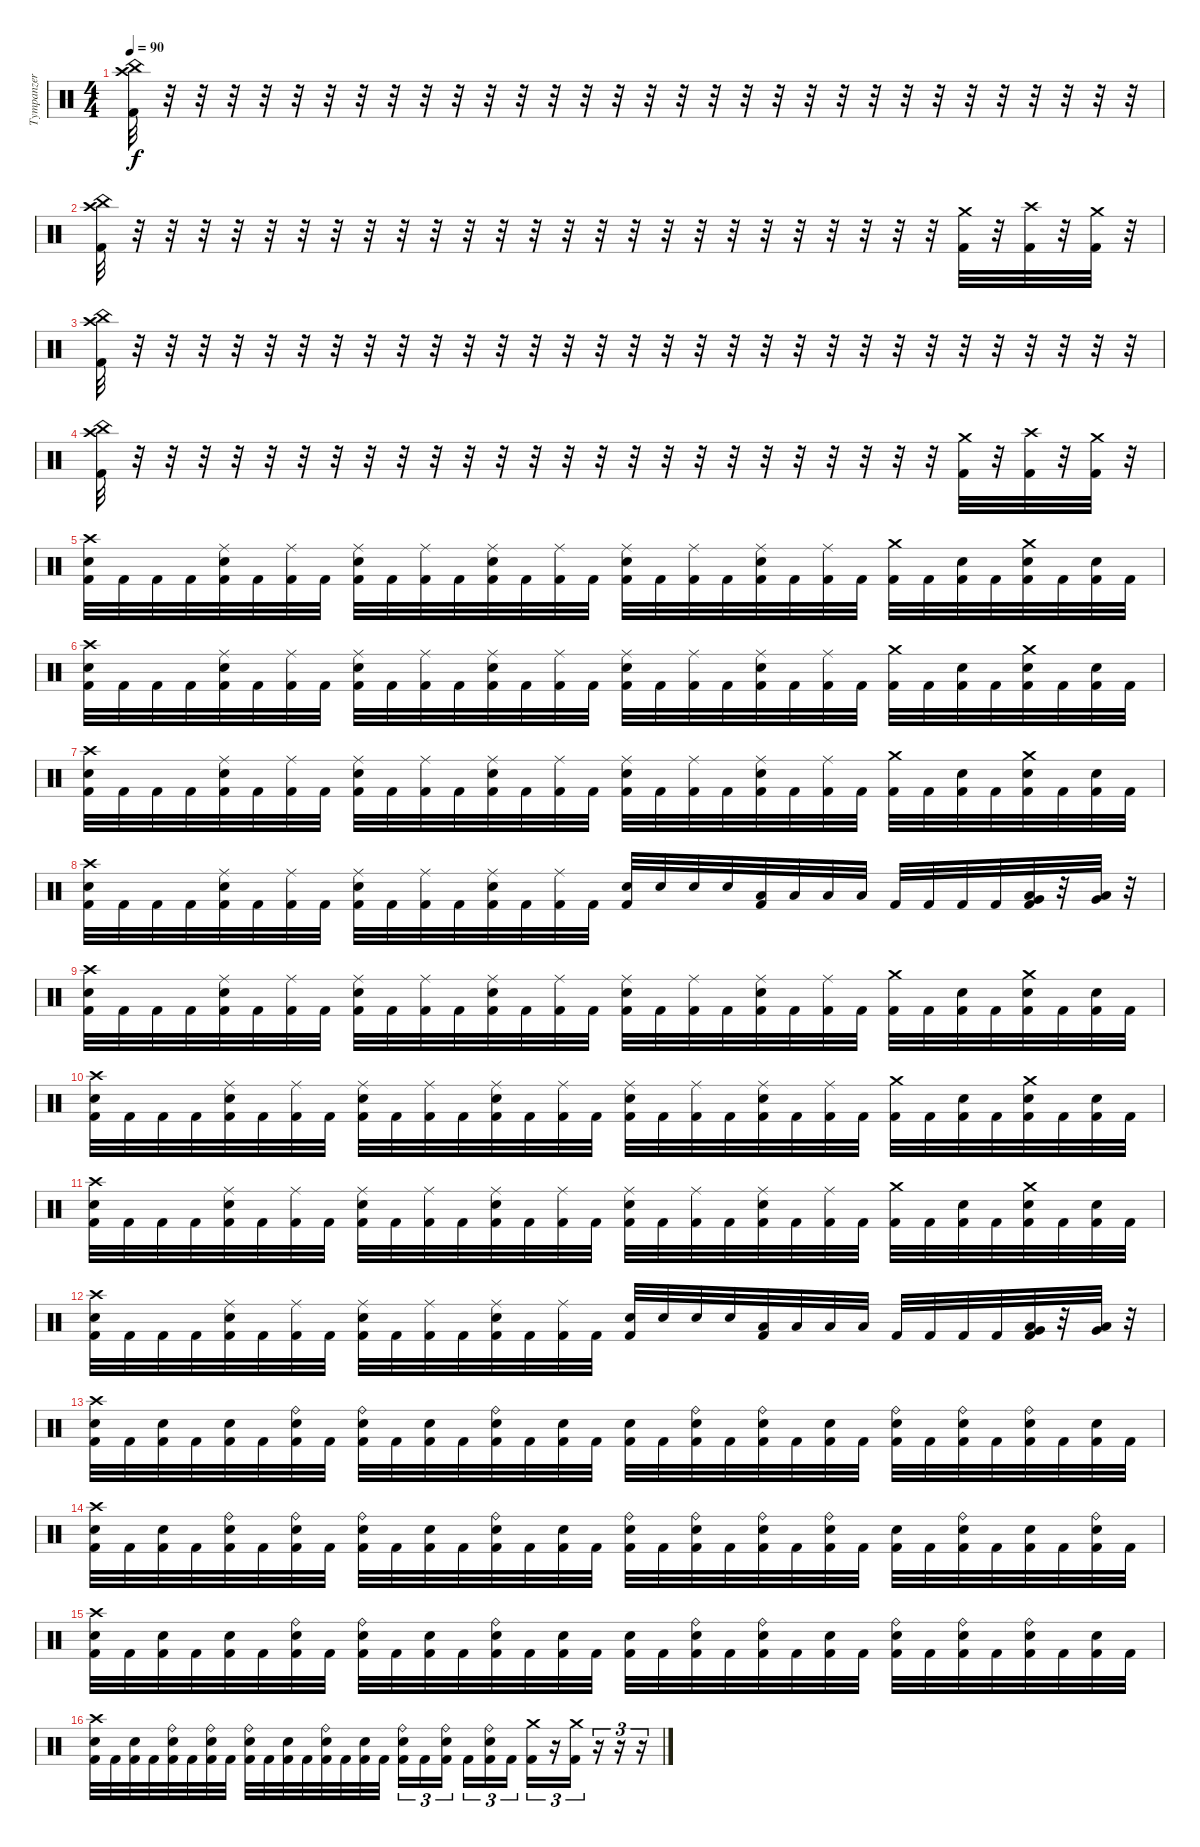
\track ("Tympanzer" "Tympanzer") {instrument percussion}
\staff {score}
\articulation defaults
\ts (4 4)
\tempo 90
\clef neutral
\ks c
("China (hit)" "Crash high (hit)" "Kick (hit) 2").32{dy f} r.32 r.32 r.32 r.32 r.32 r.32 r.32 r.32 r.32 r.32 r.32 r.32 r.32 r.32 r.32 r.32 r.32 r.32 r.32 r.32 r.32 r.32 r.32 r.32 r.32 r.32 r.32 r.32 r.32 r.32 r.32 |
("China (hit)" "Crash high (hit)" "Kick (hit) 2").32 r.32 r.32 r.32 r.32 r.32 r.32 r.32 r.32 r.32 r.32 r.32 r.32 r.32 r.32 r.32 r.32 r.32 r.32 r.32 r.32 r.32 r.32 r.32 r.32 r.32 ("Crash medium (hit)" "Kick (hit) 2").32 r.32 ("Crash high (hit)" "Kick (hit) 2").32 r.32 ("Crash medium (hit)" "Kick (hit) 2").32 r.32 |
("China (hit)" "Crash high (hit)" "Kick (hit) 2").32 r.32 r.32 r.32 r.32 r.32 r.32 r.32 r.32 r.32 r.32 r.32 r.32 r.32 r.32 r.32 r.32 r.32 r.32 r.32 r.32 r.32 r.32 r.32 r.32 r.32 r.32 r.32 r.32 r.32 r.32 r.32 |
("China (hit)" "Crash high (hit)" "Kick (hit) 2").32 r.32 r.32 r.32 r.32 r.32 r.32 r.32 r.32 r.32 r.32 r.32 r.32 r.32 r.32 r.32 r.32 r.32 r.32 r.32 r.32 r.32 r.32 r.32 r.32 r.32 ("Crash medium (hit)" "Kick (hit) 2").32 r.32 ("Crash high (hit)" "Kick (hit) 2").32 r.32 ("Crash medium (hit)" "Kick (hit) 2").32 r.32 |
("Crash high (hit)" "Electric Snare (hit)" "Kick (hit) 2").32 "Kick (hit) 2".32 "Kick (hit) 2".32 "Kick (hit) 2".32 ("Ride (middle)" "Electric Snare (hit)" "Kick (hit) 2").32 "Kick (hit) 2".32 ("Ride (middle)" "Kick (hit) 2").32 "Kick (hit) 2".32 ("Ride (middle)" "Electric Snare (hit)" "Kick (hit) 2").32 "Kick (hit) 2".32 ("Ride (middle)" "Kick (hit) 2").32 "Kick (hit) 2".32 ("Ride (middle)" "Electric Snare (hit)" "Kick (hit) 2").32 "Kick (hit) 2".32 ("Ride (middle)" "Kick (hit) 2").32 "Kick (hit) 2".32 ("Ride (middle)" "Electric Snare (hit)" "Kick (hit) 2").32 "Kick (hit) 2".32 ("Ride (middle)" "Kick (hit) 2").32 "Kick (hit) 2".32 ("Ride (middle)" "Electric Snare (hit)" "Kick (hit) 2").32 "Kick (hit) 2".32 ("Ride (middle)" "Kick (hit) 2").32 "Kick (hit) 2".32 ("Crash medium (hit)" "Kick (hit) 2").32 "Kick (hit) 2".32 ("Electric Snare (hit)" "Kick (hit) 2").32 "Kick (hit) 2".32 ("Crash medium (hit)" "Electric Snare (hit)" "Kick (hit) 2").32 "Kick (hit) 2".32 ("Electric Snare (hit)" "Kick (hit) 2").32 "Kick (hit) 2".32 |
("Crash high (hit)" "Electric Snare (hit)" "Kick (hit) 2").32 "Kick (hit) 2".32 "Kick (hit) 2".32 "Kick (hit) 2".32 ("Ride (middle)" "Electric Snare (hit)" "Kick (hit) 2").32 "Kick (hit) 2".32 ("Ride (middle)" "Kick (hit) 2").32 "Kick (hit) 2".32 ("Ride (middle)" "Electric Snare (hit)" "Kick (hit) 2").32 "Kick (hit) 2".32 ("Ride (middle)" "Kick (hit) 2").32 "Kick (hit) 2".32 ("Ride (middle)" "Electric Snare (hit)" "Kick (hit) 2").32 "Kick (hit) 2".32 ("Ride (middle)" "Kick (hit) 2").32 "Kick (hit) 2".32 ("Ride (middle)" "Electric Snare (hit)" "Kick (hit) 2").32 "Kick (hit) 2".32 ("Ride (middle)" "Kick (hit) 2").32 "Kick (hit) 2".32 ("Ride (middle)" "Electric Snare (hit)" "Kick (hit) 2").32 "Kick (hit) 2".32 ("Ride (middle)" "Kick (hit) 2").32 "Kick (hit) 2".32 ("Crash medium (hit)" "Kick (hit) 2").32 "Kick (hit) 2".32 ("Electric Snare (hit)" "Kick (hit) 2").32 "Kick (hit) 2".32 ("Crash medium (hit)" "Electric Snare (hit)" "Kick (hit) 2").32 "Kick (hit) 2".32 ("Electric Snare (hit)" "Kick (hit) 2").32 "Kick (hit) 2".32 |
("Crash high (hit)" "Electric Snare (hit)" "Kick (hit) 2").32 "Kick (hit) 2".32 "Kick (hit) 2".32 "Kick (hit) 2".32 ("Ride (middle)" "Electric Snare (hit)" "Kick (hit) 2").32 "Kick (hit) 2".32 ("Ride (middle)" "Kick (hit) 2").32 "Kick (hit) 2".32 ("Ride (middle)" "Electric Snare (hit)" "Kick (hit) 2").32 "Kick (hit) 2".32 ("Ride (middle)" "Kick (hit) 2").32 "Kick (hit) 2".32 ("Ride (middle)" "Electric Snare (hit)" "Kick (hit) 2").32 "Kick (hit) 2".32 ("Ride (middle)" "Kick (hit) 2").32 "Kick (hit) 2".32 ("Ride (middle)" "Electric Snare (hit)" "Kick (hit) 2").32 "Kick (hit) 2".32 ("Ride (middle)" "Kick (hit) 2").32 "Kick (hit) 2".32 ("Ride (middle)" "Electric Snare (hit)" "Kick (hit) 2").32 "Kick (hit) 2".32 ("Ride (middle)" "Kick (hit) 2").32 "Kick (hit) 2".32 ("Crash medium (hit)" "Kick (hit) 2").32 "Kick (hit) 2".32 ("Electric Snare (hit)" "Kick (hit) 2").32 "Kick (hit) 2".32 ("Crash medium (hit)" "Electric Snare (hit)" "Kick (hit) 2").32 "Kick (hit) 2".32 ("Electric Snare (hit)" "Kick (hit) 2").32 "Kick (hit) 2".32 |
("Crash high (hit)" "Electric Snare (hit)" "Kick (hit) 2").32 "Kick (hit) 2".32 "Kick (hit) 2".32 "Kick (hit) 2".32 ("Ride (middle)" "Electric Snare (hit)" "Kick (hit) 2").32 "Kick (hit) 2".32 ("Ride (middle)" "Kick (hit) 2").32 "Kick (hit) 2".32 ("Ride (middle)" "Electric Snare (hit)" "Kick (hit) 2").32 "Kick (hit) 2".32 ("Ride (middle)" "Kick (hit) 2").32 "Kick (hit) 2".32 ("Ride (middle)" "Electric Snare (hit)" "Kick (hit) 2").32 "Kick (hit) 2".32 ("Ride (middle)" "Kick (hit) 2").32 "Kick (hit) 2".32 ("Electric Snare (hit)" "Kick (hit) 2").32 "Electric Snare (hit)".32 "Electric Snare (hit)".32 "Electric Snare (hit)".32 ("Low Tom (hit)" "Kick (hit) 2").32 "Low Tom (hit)".32 "Low Tom (hit)".32 "Low Tom (hit)".32 "Kick (hit) 2".32 "Kick (hit) 2".32 "Kick (hit) 2".32 "Kick (hit) 2".32 ("Low Floor Tom (hit)" "Very Low Tom (hit)" "Kick (hit) 2").32 r.32 ("Low Floor Tom (hit)" "Very Low Tom (hit)").32 r.32 |
("Crash high (hit)" "Electric Snare (hit)" "Kick (hit) 2").32 "Kick (hit) 2".32 "Kick (hit) 2".32 "Kick (hit) 2".32 ("Ride (middle)" "Electric Snare (hit)" "Kick (hit) 2").32 "Kick (hit) 2".32 ("Ride (middle)" "Kick (hit) 2").32 "Kick (hit) 2".32 ("Ride (middle)" "Electric Snare (hit)" "Kick (hit) 2").32 "Kick (hit) 2".32 ("Ride (middle)" "Kick (hit) 2").32 "Kick (hit) 2".32 ("Ride (middle)" "Electric Snare (hit)" "Kick (hit) 2").32 "Kick (hit) 2".32 ("Ride (middle)" "Kick (hit) 2").32 "Kick (hit) 2".32 ("Ride (middle)" "Electric Snare (hit)" "Kick (hit) 2").32 "Kick (hit) 2".32 ("Ride (middle)" "Kick (hit) 2").32 "Kick (hit) 2".32 ("Ride (middle)" "Electric Snare (hit)" "Kick (hit) 2").32 "Kick (hit) 2".32 ("Ride (middle)" "Kick (hit) 2").32 "Kick (hit) 2".32 ("Crash medium (hit)" "Kick (hit) 2").32 "Kick (hit) 2".32 ("Electric Snare (hit)" "Kick (hit) 2").32 "Kick (hit) 2".32 ("Crash medium (hit)" "Electric Snare (hit)" "Kick (hit) 2").32 "Kick (hit) 2".32 ("Electric Snare (hit)" "Kick (hit) 2").32 "Kick (hit) 2".32 |
("Crash high (hit)" "Electric Snare (hit)" "Kick (hit) 2").32 "Kick (hit) 2".32 "Kick (hit) 2".32 "Kick (hit) 2".32 ("Ride (middle)" "Electric Snare (hit)" "Kick (hit) 2").32 "Kick (hit) 2".32 ("Ride (middle)" "Kick (hit) 2").32 "Kick (hit) 2".32 ("Ride (middle)" "Electric Snare (hit)" "Kick (hit) 2").32 "Kick (hit) 2".32 ("Ride (middle)" "Kick (hit) 2").32 "Kick (hit) 2".32 ("Ride (middle)" "Electric Snare (hit)" "Kick (hit) 2").32 "Kick (hit) 2".32 ("Ride (middle)" "Kick (hit) 2").32 "Kick (hit) 2".32 ("Ride (middle)" "Electric Snare (hit)" "Kick (hit) 2").32 "Kick (hit) 2".32 ("Ride (middle)" "Kick (hit) 2").32 "Kick (hit) 2".32 ("Ride (middle)" "Electric Snare (hit)" "Kick (hit) 2").32 "Kick (hit) 2".32 ("Ride (middle)" "Kick (hit) 2").32 "Kick (hit) 2".32 ("Crash medium (hit)" "Kick (hit) 2").32 "Kick (hit) 2".32 ("Electric Snare (hit)" "Kick (hit) 2").32 "Kick (hit) 2".32 ("Crash medium (hit)" "Electric Snare (hit)" "Kick (hit) 2").32 "Kick (hit) 2".32 ("Electric Snare (hit)" "Kick (hit) 2").32 "Kick (hit) 2".32 |
("Crash high (hit)" "Electric Snare (hit)" "Kick (hit) 2").32 "Kick (hit) 2".32 "Kick (hit) 2".32 "Kick (hit) 2".32 ("Ride (middle)" "Electric Snare (hit)" "Kick (hit) 2").32 "Kick (hit) 2".32 ("Ride (middle)" "Kick (hit) 2").32 "Kick (hit) 2".32 ("Ride (middle)" "Electric Snare (hit)" "Kick (hit) 2").32 "Kick (hit) 2".32 ("Ride (middle)" "Kick (hit) 2").32 "Kick (hit) 2".32 ("Ride (middle)" "Electric Snare (hit)" "Kick (hit) 2").32 "Kick (hit) 2".32 ("Ride (middle)" "Kick (hit) 2").32 "Kick (hit) 2".32 ("Ride (middle)" "Electric Snare (hit)" "Kick (hit) 2").32 "Kick (hit) 2".32 ("Ride (middle)" "Kick (hit) 2").32 "Kick (hit) 2".32 ("Ride (middle)" "Electric Snare (hit)" "Kick (hit) 2").32 "Kick (hit) 2".32 ("Ride (middle)" "Kick (hit) 2").32 "Kick (hit) 2".32 ("Crash medium (hit)" "Kick (hit) 2").32 "Kick (hit) 2".32 ("Electric Snare (hit)" "Kick (hit) 2").32 "Kick (hit) 2".32 ("Crash medium (hit)" "Electric Snare (hit)" "Kick (hit) 2").32 "Kick (hit) 2".32 ("Electric Snare (hit)" "Kick (hit) 2").32 "Kick (hit) 2".32 |
("Crash high (hit)" "Electric Snare (hit)" "Kick (hit) 2").32 "Kick (hit) 2".32 "Kick (hit) 2".32 "Kick (hit) 2".32 ("Ride (middle)" "Electric Snare (hit)" "Kick (hit) 2").32 "Kick (hit) 2".32 ("Ride (middle)" "Kick (hit) 2").32 "Kick (hit) 2".32 ("Ride (middle)" "Electric Snare (hit)" "Kick (hit) 2").32 "Kick (hit) 2".32 ("Ride (middle)" "Kick (hit) 2").32 "Kick (hit) 2".32 ("Ride (middle)" "Electric Snare (hit)" "Kick (hit) 2").32 "Kick (hit) 2".32 ("Ride (middle)" "Kick (hit) 2").32 "Kick (hit) 2".32 ("Electric Snare (hit)" "Kick (hit) 2").32 "Electric Snare (hit)".32 "Electric Snare (hit)".32 "Electric Snare (hit)".32 ("Low Tom (hit)" "Kick (hit) 2").32 "Low Tom (hit)".32 "Low Tom (hit)".32 "Low Tom (hit)".32 "Kick (hit) 2".32 "Kick (hit) 2".32 "Kick (hit) 2".32 "Kick (hit) 2".32 ("Low Floor Tom (hit)" "Very Low Tom (hit)" "Kick (hit) 2").32 r.32 ("Low Floor Tom (hit)" "Very Low Tom (hit)").32 r.32 |
("Crash high (hit)" "Electric Snare (hit)" "Kick (hit) 2").32 "Kick (hit) 2".32 ("Electric Snare (hit)" "Kick (hit) 2").32 "Kick (hit) 2".32 ("Electric Snare (hit)" "Kick (hit) 2").32 "Kick (hit) 2".32 ("Ride (bell)" "Electric Snare (hit)" "Kick (hit) 2").32 "Kick (hit) 2".32 ("Ride (bell)" "Electric Snare (hit)" "Kick (hit) 2").32 "Kick (hit) 2".32 ("Electric Snare (hit)" "Kick (hit) 2").32 "Kick (hit) 2".32 ("Ride (bell)" "Electric Snare (hit)" "Kick (hit) 2").32 "Kick (hit) 2".32 ("Electric Snare (hit)" "Kick (hit) 2").32 "Kick (hit) 2".32 ("Electric Snare (hit)" "Kick (hit) 2").32 "Kick (hit) 2".32 ("Ride (bell)" "Electric Snare (hit)" "Kick (hit) 2").32 "Kick (hit) 2".32 ("Ride (bell)" "Electric Snare (hit)" "Kick (hit) 2").32 "Kick (hit) 2".32 ("Electric Snare (hit)" "Kick (hit) 2").32 "Kick (hit) 2".32 ("Ride (bell)" "Electric Snare (hit)" "Kick (hit) 2").32 "Kick (hit) 2".32 ("Ride (bell)" "Electric Snare (hit)" "Kick (hit) 2").32 "Kick (hit) 2".32 ("Ride (bell)" "Electric Snare (hit)" "Kick (hit) 2").32 "Kick (hit) 2".32 ("Electric Snare (hit)" "Kick (hit) 2").32 "Kick (hit) 2".32 |
("Crash high (hit)" "Electric Snare (hit)" "Kick (hit) 2").32 "Kick (hit) 2".32 ("Electric Snare (hit)" "Kick (hit) 2").32 "Kick (hit) 2".32 ("Ride (bell)" "Electric Snare (hit)" "Kick (hit) 2").32 "Kick (hit) 2".32 ("Ride (bell)" "Electric Snare (hit)" "Kick (hit) 2").32 "Kick (hit) 2".32 ("Ride (bell)" "Electric Snare (hit)" "Kick (hit) 2").32 "Kick (hit) 2".32 ("Electric Snare (hit)" "Kick (hit) 2").32 "Kick (hit) 2".32 ("Ride (bell)" "Electric Snare (hit)" "Kick (hit) 2").32 "Kick (hit) 2".32 ("Electric Snare (hit)" "Kick (hit) 2").32 "Kick (hit) 2".32 ("Ride (bell)" "Electric Snare (hit)" "Kick (hit) 2").32 "Kick (hit) 2".32 ("Ride (bell)" "Electric Snare (hit)" "Kick (hit) 2").32 "Kick (hit) 2".32 ("Ride (bell)" "Electric Snare (hit)" "Kick (hit) 2").32 "Kick (hit) 2".32 ("Ride (bell)" "Electric Snare (hit)" "Kick (hit) 2").32 "Kick (hit) 2".32 ("Electric Snare (hit)" "Kick (hit) 2").32 "Kick (hit) 2".32 ("Ride (bell)" "Electric Snare (hit)" "Kick (hit) 2").32 "Kick (hit) 2".32 ("Electric Snare (hit)" "Kick (hit) 2").32 "Kick (hit) 2".32 ("Ride (bell)" "Electric Snare (hit)" "Kick (hit) 2").32 "Kick (hit) 2".32 |
("Crash high (hit)" "Electric Snare (hit)" "Kick (hit) 2").32 "Kick (hit) 2".32 ("Electric Snare (hit)" "Kick (hit) 2").32 "Kick (hit) 2".32 ("Electric Snare (hit)" "Kick (hit) 2").32 "Kick (hit) 2".32 ("Ride (bell)" "Electric Snare (hit)" "Kick (hit) 2").32 "Kick (hit) 2".32 ("Ride (bell)" "Electric Snare (hit)" "Kick (hit) 2").32 "Kick (hit) 2".32 ("Electric Snare (hit)" "Kick (hit) 2").32 "Kick (hit) 2".32 ("Ride (bell)" "Electric Snare (hit)" "Kick (hit) 2").32 "Kick (hit) 2".32 ("Electric Snare (hit)" "Kick (hit) 2").32 "Kick (hit) 2".32 ("Electric Snare (hit)" "Kick (hit) 2").32 "Kick (hit) 2".32 ("Ride (bell)" "Electric Snare (hit)" "Kick (hit) 2").32 "Kick (hit) 2".32 ("Ride (bell)" "Electric Snare (hit)" "Kick (hit) 2").32 "Kick (hit) 2".32 ("Electric Snare (hit)" "Kick (hit) 2").32 "Kick (hit) 2".32 ("Ride (bell)" "Electric Snare (hit)" "Kick (hit) 2").32 "Kick (hit) 2".32 ("Ride (bell)" "Electric Snare (hit)" "Kick (hit) 2").32 "Kick (hit) 2".32 ("Ride (bell)" "Electric Snare (hit)" "Kick (hit) 2").32 "Kick (hit) 2".32 ("Electric Snare (hit)" "Kick (hit) 2").32 "Kick (hit) 2".32 |
("Crash high (hit)" "Electric Snare (hit)" "Kick (hit) 2").32 "Kick (hit) 2".32 ("Electric Snare (hit)" "Kick (hit) 2").32 "Kick (hit) 2".32 ("Ride (bell)" "Electric Snare (hit)" "Kick (hit) 2").32 "Kick (hit) 2".32 ("Ride (bell)" "Electric Snare (hit)" "Kick (hit) 2").32 "Kick (hit) 2".32 ("Ride (bell)" "Electric Snare (hit)" "Kick (hit) 2").32 "Kick (hit) 2".32 ("Electric Snare (hit)" "Kick (hit) 2").32 "Kick (hit) 2".32 ("Ride (bell)" "Electric Snare (hit)" "Kick (hit) 2").32 "Kick (hit) 2".32 ("Electric Snare (hit)" "Kick (hit) 2").32 "Kick (hit) 2".32 ("Ride (bell)" "Electric Snare (hit)" "Kick (hit) 2").16{tu (3 2)} "Kick (hit) 2".16{tu (3 2)} ("Ride (bell)" "Electric Snare (hit)" "Kick (hit) 2").16{tu (3 2) beam splitsecondary} "Kick (hit) 2".16{tu (3 2)} ("Ride (bell)" "Electric Snare (hit)" "Kick (hit) 2").16{tu (3 2)} "Kick (hit) 2".16{tu (3 2)} ("Crash medium (hit)" "Kick (hit) 2").16{tu (3 2)} r.16{tu (3 2)} ("Crash medium (hit)" "Kick (hit) 2").16{tu (3 2)} r.16{tu (3 2)} r.16{tu (3 2)} r.16{tu (3 2)}
